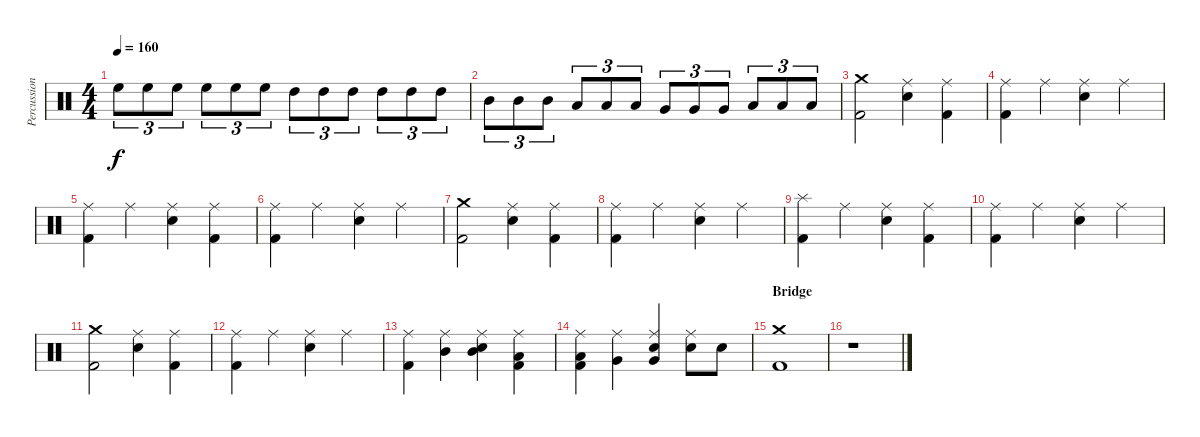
\track ("Percussion" "Percussion") {instrument percussion}
\staff {score}
\articulation defaults
\ts (4 4)
\tempo 160
\clef neutral
\ks c "High Floor Tom (hit)".8{tu (3 2) dy f} "High Floor Tom (hit)".8{tu (3 2)} "High Floor Tom (hit)".8{tu (3 2)} "High Floor Tom (hit)".8{tu (3 2)} "High Floor Tom (hit)".8{tu (3 2)} "High Floor Tom (hit)".8{tu (3 2)} "High Tom (hit)".8{tu (3 2)} "High Tom (hit)".8{tu (3 2)} "High Tom (hit)".8{tu (3 2)} "High Tom (hit)".8{tu (3 2)} "High Tom (hit)".8{tu (3 2)} "High Tom (hit)".8{tu (3 2)}
|
"Mid Tom (hit)".8{tu (3 2)} "Mid Tom (hit)".8{tu (3 2)} "Mid Tom (hit)".8{tu (3 2)} "Low Tom (hit)".8{tu (3 2)} "Low Tom (hit)".8{tu (3 2)} "Low Tom (hit)".8{tu (3 2)} "Very Low Tom (hit)".8{tu (3 2)} "Very Low Tom (hit)".8{tu (3 2)} "Very Low Tom (hit)".8{tu (3 2)} "Low Floor Tom (hit)".8{tu (3 2)} "Low Floor Tom (hit)".8{tu (3 2)} "Low Floor Tom (hit)".8{tu (3 2)} |
("Crash medium (hit)" "Kick (hit) 2").2 ("Ride (middle)" "Electric Snare (hit)").4 ("Ride (middle)" "Kick (hit) 2").4 |
("Ride (middle)" "Kick (hit) 2").4 "Ride (middle)".4 ("Ride (middle)" "Electric Snare (hit)").4 "Ride (middle)".4 |
("Ride (middle)" "Kick (hit) 2").4 "Ride (middle)".4 ("Ride (middle)" "Electric Snare (hit)").4 ("Ride (middle)" "Kick (hit) 2").4 |
("Ride (middle)" "Kick (hit) 2").4 "Ride (middle)".4 ("Ride (middle)" "Electric Snare (hit)").4 "Ride (middle)".4 |
("Crash medium (hit)" "Kick (hit) 2").2 ("Ride (middle)" "Electric Snare (hit)").4 ("Ride (middle)" "Kick (hit) 2").4 |
("Ride (middle)" "Kick (hit) 2").4 "Ride (middle)".4 ("Ride (middle)" "Electric Snare (hit)").4 "Ride (middle)".4 |
("Splash (hit)" "Kick (hit) 2").4 "Ride (middle)".4 ("Ride (middle)" "Electric Snare (hit)").4 ("Ride (middle)" "Kick (hit) 2").4 |
("Ride (middle)" "Kick (hit) 2").4 "Ride (middle)".4 ("Ride (middle)" "Electric Snare (hit)").4 "Ride (middle)".4 |
("Crash medium (hit)" "Kick (hit) 2").2 ("Ride (middle)" "Electric Snare (hit)").4 ("Ride (middle)" "Kick (hit) 2").4 |
("Ride (middle)" "Kick (hit) 2").4 "Ride (middle)".4 ("Ride (middle)" "Electric Snare (hit)").4 "Ride (middle)".4 |
("Ride (middle)" "Kick (hit) 2").4 ("Ride (middle)" "Mid Tom (hit)").4 ("Ride (middle)" "Mid Tom (hit)" "Electric Snare (hit)").4 ("Ride (middle)" "Low Tom (hit)" "Kick (hit) 2").4 |
("Ride (middle)" "Low Tom (hit)" "Kick (hit) 2").4 ("Ride (middle)" "Very Low Tom (hit)").4 ("Ride (middle)" "Very Low Tom (hit)" "Electric Snare (hit)").4 ("Ride (middle)" "Electric Snare (hit)").8 "Electric Snare (hit)".8 |
\section ("" "Bridge")
("Crash medium (hit)" "Kick (hit) 2").1 |
r.1
